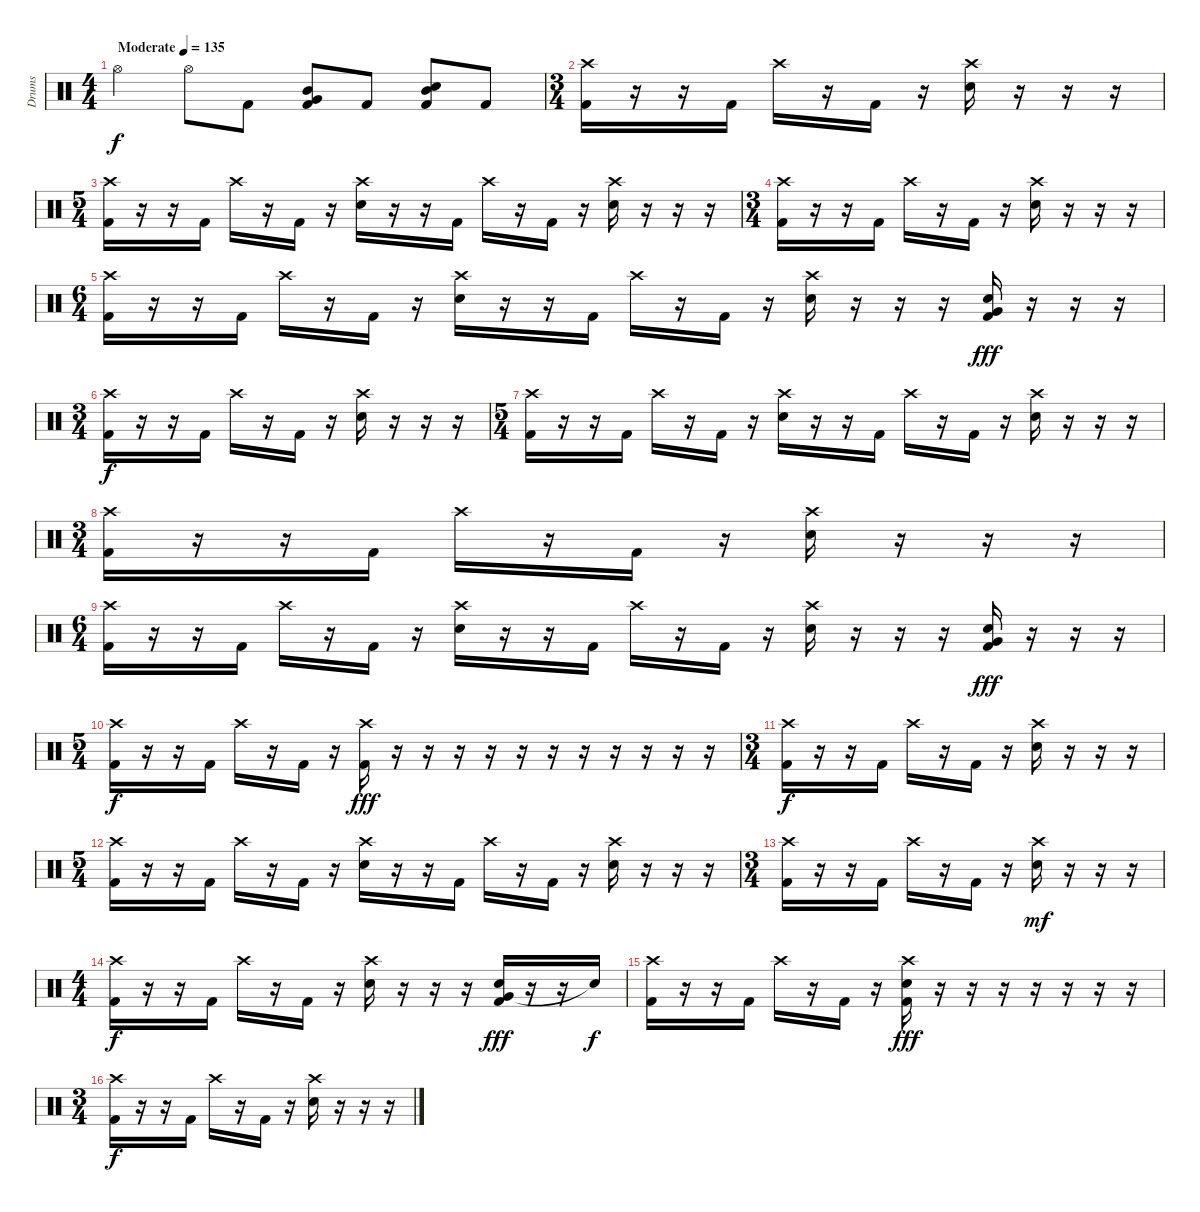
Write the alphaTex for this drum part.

\track ("Drums" "Drums") {instrument percussion}
\staff {score}
\articulation defaults
\ts (4 4)
\tempo (135 "Moderate")
\clef neutral
\ks c "Hi-Hat (open)".4{dy f} "Hi-Hat (open)".8 "Kick (hit) 2".8
("Mid Tom (hit)" "Very Low Tom (hit)" "Kick (hit) 2").8 "Kick (hit) 2".8 ("Mid Tom (hit)" "Electric Snare (hit)" "Kick (hit) 2").8 "Kick (hit) 2".8 |
\ts (3 4)
("Crash high (hit)" "Kick (hit) 2").16 r.16 r.16 "Kick (hit) 2".16 "Crash high (hit)".16 r.16 "Kick (hit) 2".16 r.16 ("Crash high (hit)" "Electric Snare (hit)").16 r.16 r.16 r.16 |
\ts (5 4)
("Crash high (hit)" "Kick (hit) 2").16 r.16 r.16 "Kick (hit) 2".16 "Crash high (hit)".16 r.16 "Kick (hit) 2".16 r.16 ("Crash high (hit)" "Electric Snare (hit)").16 r.16 r.16 "Kick (hit) 2".16 "Crash high (hit)".16 r.16 "Kick (hit) 2".16 r.16 ("Crash high (hit)" "Electric Snare (hit)").16 r.16 r.16 r.16 |
\ts (3 4)
("Crash high (hit)" "Kick (hit) 2").16 r.16 r.16 "Kick (hit) 2".16 "Crash high (hit)".16 r.16 "Kick (hit) 2".16 r.16 ("Crash high (hit)" "Electric Snare (hit)").16 r.16 r.16 r.16 |
\ts (6 4)
("Crash high (hit)" "Kick (hit) 2").16 r.16 r.16 "Kick (hit) 2".16 "Crash high (hit)".16 r.16 "Kick (hit) 2".16 r.16 ("Crash high (hit)" "Electric Snare (hit)").16 r.16 r.16 "Kick (hit) 2".16 "Crash high (hit)".16 r.16 "Kick (hit) 2".16 r.16 ("Crash high (hit)" "Electric Snare (hit)").16 r.16 r.16 r.16 ("Very Low Tom (hit)" "Electric Snare (hit)" "Kick (hit) 2").16{dy fff} r.16 r.16 r.16 |
\ts (3 4)
("Crash high (hit)" "Kick (hit) 2").16{dy f} r.16 r.16 "Kick (hit) 2".16 "Crash high (hit)".16 r.16 "Kick (hit) 2".16 r.16 ("Crash high (hit)" "Electric Snare (hit)").16 r.16 r.16 r.16 |
\ts (5 4)
("Crash high (hit)" "Kick (hit) 2").16 r.16 r.16 "Kick (hit) 2".16 "Crash high (hit)".16 r.16 "Kick (hit) 2".16 r.16 ("Crash high (hit)" "Electric Snare (hit)").16 r.16 r.16 "Kick (hit) 2".16 "Crash high (hit)".16 r.16 "Kick (hit) 2".16 r.16 ("Crash high (hit)" "Electric Snare (hit)").16 r.16 r.16 r.16 |
\ts (3 4)
("Crash high (hit)" "Kick (hit) 2").16 r.16 r.16 "Kick (hit) 2".16 "Crash high (hit)".16 r.16 "Kick (hit) 2".16 r.16 ("Crash high (hit)" "Electric Snare (hit)").16 r.16 r.16 r.16 |
\ts (6 4)
("Crash high (hit)" "Kick (hit) 2").16 r.16 r.16 "Kick (hit) 2".16 "Crash high (hit)".16 r.16 "Kick (hit) 2".16 r.16 ("Crash high (hit)" "Electric Snare (hit)").16 r.16 r.16 "Kick (hit) 2".16 "Crash high (hit)".16 r.16 "Kick (hit) 2".16 r.16 ("Crash high (hit)" "Electric Snare (hit)").16 r.16 r.16 r.16 ("Very Low Tom (hit)" "Electric Snare (hit)" "Kick (hit) 2").16{dy fff} r.16 r.16 r.16 |
\ts (5 4)
("Crash high (hit)" "Kick (hit) 2").16{dy f} r.16 r.16 "Kick (hit) 2".16 "Crash high (hit)".16 r.16 "Kick (hit) 2".16 r.16 ("Crash high (hit)" "Kick (hit) 2").16{dy fff} r.16 r.16 r.16 r.16 r.16 r.16 r.16 r.16 r.16 r.16 r.16 |
\ts (3 4)
("Crash high (hit)" "Kick (hit) 2").16{dy f} r.16 r.16 "Kick (hit) 2".16 "Crash high (hit)".16 r.16 "Kick (hit) 2".16 r.16 ("Crash high (hit)" "Electric Snare (hit)").16 r.16 r.16 r.16 |
\ts (5 4)
("Crash high (hit)" "Kick (hit) 2").16 r.16 r.16 "Kick (hit) 2".16 "Crash high (hit)".16 r.16 "Kick (hit) 2".16 r.16 ("Crash high (hit)" "Electric Snare (hit)").16 r.16 r.16 "Kick (hit) 2".16 "Crash high (hit)".16 r.16 "Kick (hit) 2".16 r.16 ("Crash high (hit)" "Electric Snare (hit)").16 r.16 r.16 r.16 |
\ts (3 4)
("Crash high (hit)" "Kick (hit) 2").16 r.16 r.16 "Kick (hit) 2".16 "Crash high (hit)".16 r.16 "Kick (hit) 2".16 r.16 ("Crash high (hit)" "Electric Snare (hit)").16{dy mf} r.16 r.16 r.16 |
\ts (4 4)
("Crash high (hit)" "Kick (hit) 2").16{dy f} r.16 r.16 "Kick (hit) 2".16 "Crash high (hit)".16 r.16 "Kick (hit) 2".16 r.16 ("Crash high (hit)" "Electric Snare (hit)").16 r.16 r.16 r.16 ("Very Low Tom (hit)" "Electric Snare (hit)" "Kick (hit) 2").16{dy fff} r.16 r.16 "Snare (hit)"{t}.16{dy f} |
("Crash high (hit)" "Kick (hit) 2").16 r.16 r.16 "Kick (hit) 2".16 "Crash high (hit)".16 r.16 "Kick (hit) 2".16 r.16 ("Crash high (hit)" "Electric Snare (hit)" "Kick (hit) 2").16{dy fff} r.16 r.16 r.16 r.16 r.16 r.16 r.16 |
\ts (3 4)
("Crash high (hit)" "Kick (hit) 2").16{dy f} r.16 r.16 "Kick (hit) 2".16 "Crash high (hit)".16 r.16 "Kick (hit) 2".16 r.16 ("Crash high (hit)" "Electric Snare (hit)").16 r.16 r.16 r.16
